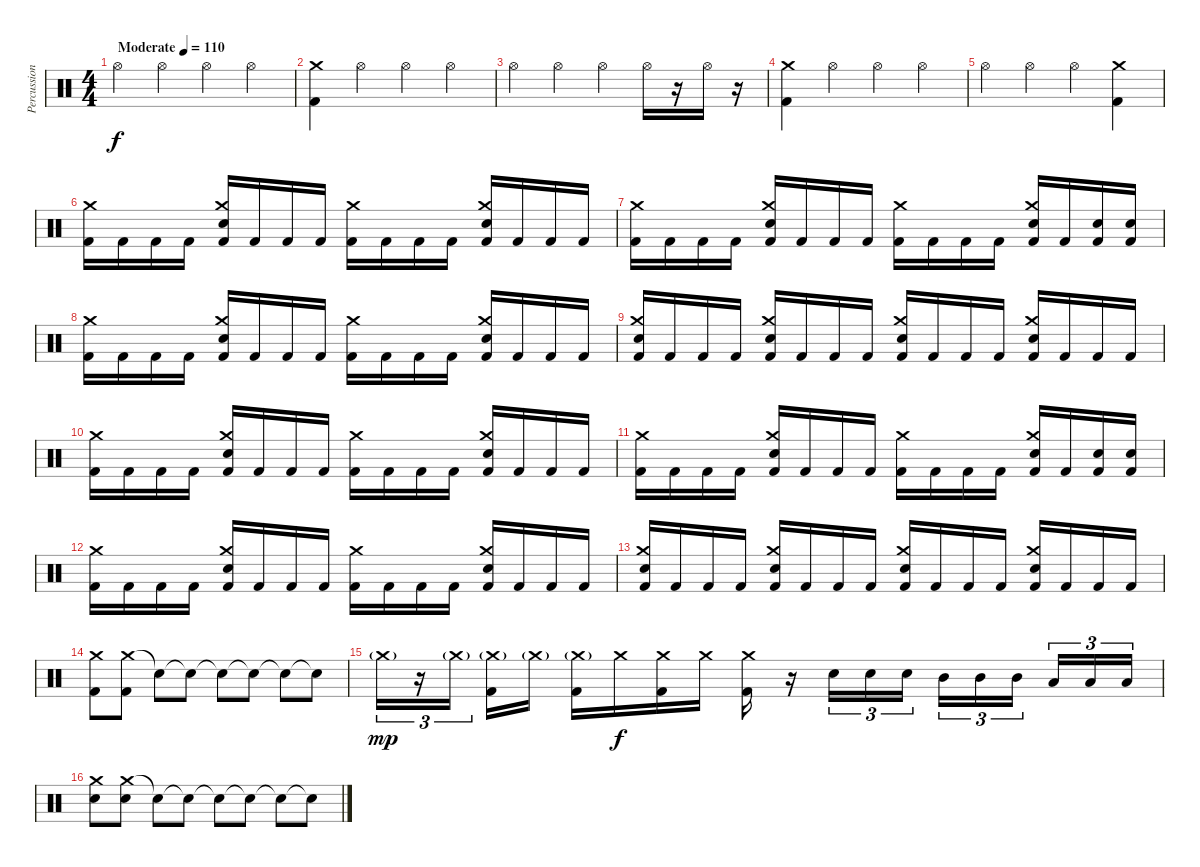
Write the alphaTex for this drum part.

\track ("Percussion" "Percussion") {instrument percussion}
\staff {score}
\articulation defaults
\ts (4 4)
\tempo (110 "Moderate")
\clef neutral
\ks c "Hi-Hat (open)".4{dy f} "Hi-Hat (open)".4 "Hi-Hat (open)".4 "Hi-Hat (open)".4
|
("Kick (hit) 2" "Crash medium (hit)").4 "Hi-Hat (open)".4 "Hi-Hat (open)".4 "Hi-Hat (open)".4 |
"Hi-Hat (open)".4 "Hi-Hat (open)".4 "Hi-Hat (open)".4 "Hi-Hat (open)".16 r.16 "Hi-Hat (open)".16 r.16 |
("Kick (hit) 2" "Crash medium (hit)").4 "Hi-Hat (open)".4 "Hi-Hat (open)".4 "Hi-Hat (open)".4 |
"Hi-Hat (open)".4 "Hi-Hat (open)".4 "Hi-Hat (open)".4 ("Kick (hit) 2" "Crash medium (hit)").4 |
("Crash medium (hit)" "Kick (hit) 2").16 "Kick (hit) 2".16 "Kick (hit) 2".16 "Kick (hit) 2".16 ("Electric Snare (hit)" "Crash medium (hit)" "Kick (hit) 2").16 "Kick (hit) 2".16 "Kick (hit) 2".16 "Kick (hit) 2".16 ("Crash medium (hit)" "Kick (hit) 2").16 "Kick (hit) 2".16 "Kick (hit) 2".16 "Kick (hit) 2".16 ("Electric Snare (hit)" "Crash medium (hit)" "Kick (hit) 2").16 "Kick (hit) 2".16 "Kick (hit) 2".16 "Kick (hit) 2".16 |
("Crash medium (hit)" "Kick (hit) 2").16 "Kick (hit) 2".16 "Kick (hit) 2".16 "Kick (hit) 2".16 ("Electric Snare (hit)" "Crash medium (hit)" "Kick (hit) 2").16 "Kick (hit) 2".16 "Kick (hit) 2".16 "Kick (hit) 2".16 ("Crash medium (hit)" "Kick (hit) 2").16 "Kick (hit) 2".16 "Kick (hit) 2".16 "Kick (hit) 2".16 ("Electric Snare (hit)" "Crash medium (hit)" "Kick (hit) 2").16 "Kick (hit) 2".16 ("Electric Snare (hit)" "Kick (hit) 2").16 ("Electric Snare (hit)" "Kick (hit) 2").16 |
("Crash medium (hit)" "Kick (hit) 2").16 "Kick (hit) 2".16 "Kick (hit) 2".16 "Kick (hit) 2".16 ("Electric Snare (hit)" "Crash medium (hit)" "Kick (hit) 2").16 "Kick (hit) 2".16 "Kick (hit) 2".16 "Kick (hit) 2".16 ("Crash medium (hit)" "Kick (hit) 2").16 "Kick (hit) 2".16 "Kick (hit) 2".16 "Kick (hit) 2".16 ("Electric Snare (hit)" "Crash medium (hit)" "Kick (hit) 2").16 "Kick (hit) 2".16 "Kick (hit) 2".16 "Kick (hit) 2".16 |
("Electric Snare (hit)" "Crash medium (hit)" "Kick (hit) 2").16 "Kick (hit) 2".16 "Kick (hit) 2".16 "Kick (hit) 2".16 ("Electric Snare (hit)" "Crash medium (hit)" "Kick (hit) 2").16 "Kick (hit) 2".16 "Kick (hit) 2".16 "Kick (hit) 2".16 ("Electric Snare (hit)" "Crash medium (hit)" "Kick (hit) 2").16 "Kick (hit) 2".16 "Kick (hit) 2".16 "Kick (hit) 2".16 ("Electric Snare (hit)" "Crash medium (hit)" "Kick (hit) 2").16 "Kick (hit) 2".16 "Kick (hit) 2".16 "Kick (hit) 2".16 |
("Crash medium (hit)" "Kick (hit) 2").16 "Kick (hit) 2".16 "Kick (hit) 2".16 "Kick (hit) 2".16 ("Electric Snare (hit)" "Crash medium (hit)" "Kick (hit) 2").16 "Kick (hit) 2".16 "Kick (hit) 2".16 "Kick (hit) 2".16 ("Crash medium (hit)" "Kick (hit) 2").16 "Kick (hit) 2".16 "Kick (hit) 2".16 "Kick (hit) 2".16 ("Electric Snare (hit)" "Crash medium (hit)" "Kick (hit) 2").16 "Kick (hit) 2".16 "Kick (hit) 2".16 "Kick (hit) 2".16 |
("Crash medium (hit)" "Kick (hit) 2").16 "Kick (hit) 2".16 "Kick (hit) 2".16 "Kick (hit) 2".16 ("Electric Snare (hit)" "Crash medium (hit)" "Kick (hit) 2").16 "Kick (hit) 2".16 "Kick (hit) 2".16 "Kick (hit) 2".16 ("Crash medium (hit)" "Kick (hit) 2").16 "Kick (hit) 2".16 "Kick (hit) 2".16 "Kick (hit) 2".16 ("Electric Snare (hit)" "Crash medium (hit)" "Kick (hit) 2").16 "Kick (hit) 2".16 ("Electric Snare (hit)" "Kick (hit) 2").16 ("Electric Snare (hit)" "Kick (hit) 2").16 |
("Crash medium (hit)" "Kick (hit) 2").16 "Kick (hit) 2".16 "Kick (hit) 2".16 "Kick (hit) 2".16 ("Electric Snare (hit)" "Crash medium (hit)" "Kick (hit) 2").16 "Kick (hit) 2".16 "Kick (hit) 2".16 "Kick (hit) 2".16 ("Crash medium (hit)" "Kick (hit) 2").16 "Kick (hit) 2".16 "Kick (hit) 2".16 "Kick (hit) 2".16 ("Electric Snare (hit)" "Crash medium (hit)" "Kick (hit) 2").16 "Kick (hit) 2".16 "Kick (hit) 2".16 "Kick (hit) 2".16 |
("Electric Snare (hit)" "Crash medium (hit)" "Kick (hit) 2").16 "Kick (hit) 2".16 "Kick (hit) 2".16 "Kick (hit) 2".16 ("Electric Snare (hit)" "Crash medium (hit)" "Kick (hit) 2").16 "Kick (hit) 2".16 "Kick (hit) 2".16 "Kick (hit) 2".16 ("Electric Snare (hit)" "Crash medium (hit)" "Kick (hit) 2").16 "Kick (hit) 2".16 "Kick (hit) 2".16 "Kick (hit) 2".16 ("Electric Snare (hit)" "Crash medium (hit)" "Kick (hit) 2").16 "Kick (hit) 2".16 "Kick (hit) 2".16 "Kick (hit) 2".16 |
("Crash medium (hit)" "Kick (hit) 2").8 ("Crash medium (hit)" "Kick (hit) 2").8 "Snare (hit)"{t}.8 "Snare (hit)"{t}.8 "Snare (hit)"{t}.8 "Snare (hit)"{t}.8 "Snare (hit)"{t}.8 "Snare (hit)"{t}.8 |
"Crash medium (hit)"{g}.16{tu (3 2) dy mp} r.16{tu (3 2)} "Crash medium (hit)"{g}.16{tu (3 2) beam splitsecondary} ("Kick (hit) 2" "Crash medium (hit)"{g}).16 "Crash medium (hit)"{g}.16 ("Kick (hit) 2" "Crash medium (hit)"{g}).16 "Crash medium (hit)".16{dy f} ("Kick (hit) 2" "Crash medium (hit)").16 "Crash medium (hit)".16 ("Kick (hit) 2" "Crash medium (hit)").16 r.16 "Electric Snare (hit)".16{tu (3 2)} "Electric Snare (hit)".16{tu (3 2)} "Electric Snare (hit)".16{tu (3 2)} "Mid Tom (hit)".16{tu (3 2)} "Mid Tom (hit)".16{tu (3 2)} "Mid Tom (hit)".16{tu (3 2) beam splitsecondary} "Low Tom (hit)".16{tu (3 2)} "Low Tom (hit)".16{tu (3 2)} "Low Tom (hit)".16{tu (3 2)} |
("Crash medium (hit)" "Electric Snare (hit)").8 ("Crash medium (hit)" "Electric Snare (hit)").8 "Snare (hit)"{t}.8 "Snare (hit)"{t}.8 "Snare (hit)"{t}.8 "Snare (hit)"{t}.8 "Snare (hit)"{t}.8 "Snare (hit)"{t}.8
